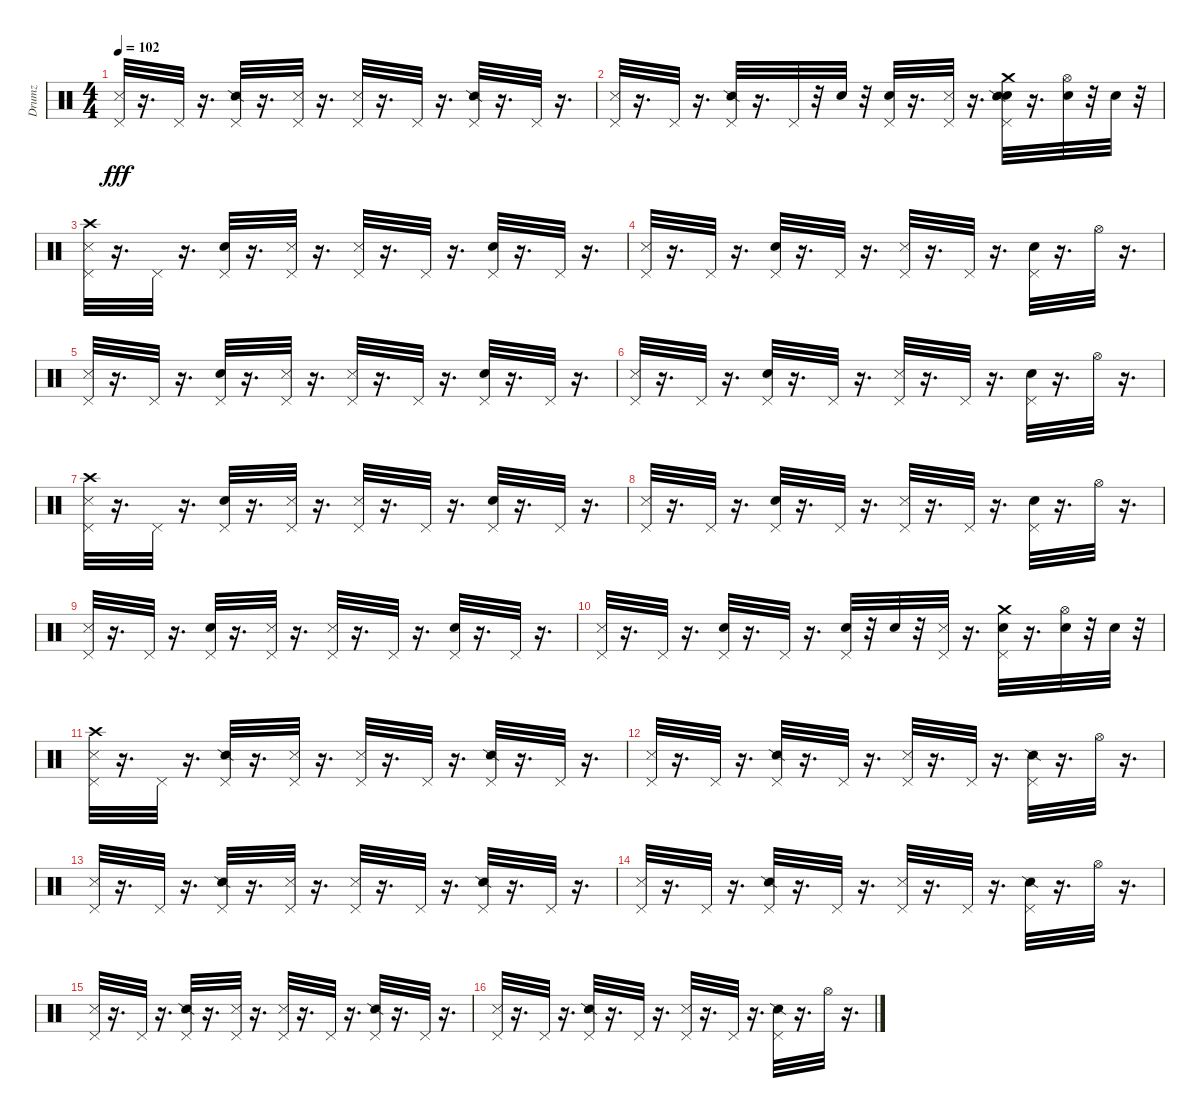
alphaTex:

\track ("Drumz" "Drumz") {instrument percussion}
\staff {score}
\articulation defaults
\ts (4 4)
\tempo 102
\clef neutral
\ks c
("Metronome (hit)" "Pedal Hi-Hat (hit)").32{dy fff} r.16{d} "Pedal Hi-Hat (hit)".32 r.16{d} ("Snare (side stick) 2" "Pedal Hi-Hat (hit)").32 r.16{d} ("Metronome (hit)" "Pedal Hi-Hat (hit)").32 r.16{d} ("Metronome (hit)" "Pedal Hi-Hat (hit)").32 r.16{d} "Pedal Hi-Hat (hit)".32 r.16{d} ("Pedal Hi-Hat (hit)" "Snare (side stick) 2").32 r.16{d} "Pedal Hi-Hat (hit)".32 r.16{d} |
("Metronome (hit)" "Pedal Hi-Hat (hit)").32 r.16{d} "Pedal Hi-Hat (hit)".32 r.16{d} ("Pedal Hi-Hat (hit)" "Snare (side stick) 2").32 r.16{d} "Pedal Hi-Hat (hit)".32 r.32 "Snare (hit) 2".32 r.32 ("Pedal Hi-Hat (hit)" "Snare (hit) 2").32 r.16{d} ("Pedal Hi-Hat (hit)" "Metronome (hit)").32 r.16{d} ("Snare (hit) 2" "Snare (side stick) 2" "Pedal Hi-Hat (hit)" "Crash medium (hit)").32 r.16{d} ("Snare (hit) 2" "Hi-Hat (open)").32 r.32 "Snare (hit) 2".32 r.32 |
("Crash high (hit)" "Metronome (hit)" "Pedal Hi-Hat (hit)").32 r.16{d} "Pedal Hi-Hat (hit)".32 r.16{d} ("Snare (hit) 2" "Pedal Hi-Hat (hit)").32 r.16{d} ("Pedal Hi-Hat (hit)" "Metronome (hit)").32 r.16{d} ("Pedal Hi-Hat (hit)" "Metronome (hit)").32 r.16{d} "Pedal Hi-Hat (hit)".32 r.16{d} ("Snare (hit) 2" "Pedal Hi-Hat (hit)").32 r.16{d} "Pedal Hi-Hat (hit)".32 r.16{d} |
("Metronome (hit)" "Pedal Hi-Hat (hit)").32 r.16{d} "Pedal Hi-Hat (hit)".32 r.16{d} ("Snare (hit) 2" "Pedal Hi-Hat (hit)").32 r.16{d} "Pedal Hi-Hat (hit)".32 r.16{d} ("Metronome (hit)" "Pedal Hi-Hat (hit)").32 r.16{d} "Pedal Hi-Hat (hit)".32 r.16{d} ("Pedal Hi-Hat (hit)" "Snare (hit) 2").32 r.16{d} "Hi-Hat (open)".32 r.16{d} |
("Metronome (hit)" "Pedal Hi-Hat (hit)").32 r.16{d} "Pedal Hi-Hat (hit)".32 r.16{d} ("Pedal Hi-Hat (hit)" "Snare (hit) 2").32 r.16{d} ("Metronome (hit)" "Pedal Hi-Hat (hit)").32 r.16{d} ("Metronome (hit)" "Pedal Hi-Hat (hit)").32 r.16{d} "Pedal Hi-Hat (hit)".32 r.16{d} ("Snare (hit) 2" "Pedal Hi-Hat (hit)").32 r.16{d} "Pedal Hi-Hat (hit)".32 r.16{d} |
("Pedal Hi-Hat (hit)" "Metronome (hit)").32 r.16{d} "Pedal Hi-Hat (hit)".32 r.16{d} ("Pedal Hi-Hat (hit)" "Snare (hit) 2").32 r.16{d} "Pedal Hi-Hat (hit)".32 r.16{d} ("Metronome (hit)" "Pedal Hi-Hat (hit)").32 r.16{d} "Pedal Hi-Hat (hit)".32 r.16{d} ("Pedal Hi-Hat (hit)" "Snare (hit) 2").32 r.16{d} "Hi-Hat (open)".32 r.16{d} |
("Crash high (hit)" "Pedal Hi-Hat (hit)" "Metronome (hit)").32 r.16{d} "Pedal Hi-Hat (hit)".32 r.16{d} ("Snare (hit) 2" "Pedal Hi-Hat (hit)").32 r.16{d} ("Metronome (hit)" "Pedal Hi-Hat (hit)").32 r.16{d} ("Pedal Hi-Hat (hit)" "Metronome (hit)").32 r.16{d} "Pedal Hi-Hat (hit)".32 r.16{d} ("Snare (hit) 2" "Pedal Hi-Hat (hit)").32 r.16{d} "Pedal Hi-Hat (hit)".32 r.16{d} |
("Metronome (hit)" "Pedal Hi-Hat (hit)").32 r.16{d} "Pedal Hi-Hat (hit)".32 r.16{d} ("Pedal Hi-Hat (hit)" "Snare (hit) 2").32 r.16{d} "Pedal Hi-Hat (hit)".32 r.16{d} ("Pedal Hi-Hat (hit)" "Metronome (hit)").32 r.16{d} "Pedal Hi-Hat (hit)".32 r.16{d} ("Snare (hit) 2" "Pedal Hi-Hat (hit)").32 r.16{d} "Hi-Hat (open)".32 r.16{d} |
("Pedal Hi-Hat (hit)" "Metronome (hit)").32 r.16{d} "Pedal Hi-Hat (hit)".32 r.16{d} ("Pedal Hi-Hat (hit)" "Snare (hit) 2").32 r.16{d} ("Metronome (hit)" "Pedal Hi-Hat (hit)").32 r.16{d} ("Metronome (hit)" "Pedal Hi-Hat (hit)").32 r.16{d} "Pedal Hi-Hat (hit)".32 r.16{d} ("Snare (hit) 2" "Pedal Hi-Hat (hit)").32 r.16{d} "Pedal Hi-Hat (hit)".32 r.16{d} |
("Pedal Hi-Hat (hit)" "Metronome (hit)").32 r.16{d} "Pedal Hi-Hat (hit)".32 r.16{d} ("Snare (hit) 2" "Pedal Hi-Hat (hit)").32 r.16{d} "Pedal Hi-Hat (hit)".32 r.16{d} ("Snare (hit) 2" "Pedal Hi-Hat (hit)").32 r.32 "Snare (hit) 2".32 r.32 ("Pedal Hi-Hat (hit)" "Metronome (hit)").32 r.16{d} ("Crash medium (hit)" "Pedal Hi-Hat (hit)" "Snare (hit) 2").32 r.16{d} ("Snare (hit) 2" "Hi-Hat (open)").32 r.32 "Snare (hit) 2".32 r.32 |
("Metronome (hit)" "Pedal Hi-Hat (hit)" "Crash high (hit)").32 r.16{d} "Pedal Hi-Hat (hit)".32 r.16{d} ("Pedal Hi-Hat (hit)" "Snare (side stick) 2").32 r.16{d} ("Metronome (hit)" "Pedal Hi-Hat (hit)").32 r.16{d} ("Pedal Hi-Hat (hit)" "Metronome (hit)").32 r.16{d} "Pedal Hi-Hat (hit)".32 r.16{d} ("Snare (side stick) 2" "Pedal Hi-Hat (hit)").32 r.16{d} "Pedal Hi-Hat (hit)".32 r.16{d} |
("Pedal Hi-Hat (hit)" "Metronome (hit)").32 r.16{d} "Pedal Hi-Hat (hit)".32 r.16{d} ("Snare (side stick) 2" "Pedal Hi-Hat (hit)").32 r.16{d} "Pedal Hi-Hat (hit)".32 r.16{d} ("Pedal Hi-Hat (hit)" "Metronome (hit)").32 r.16{d} "Pedal Hi-Hat (hit)".32 r.16{d} ("Snare (side stick) 2" "Pedal Hi-Hat (hit)").32 r.16{d} "Hi-Hat (open)".32 r.16{d} |
("Metronome (hit)" "Pedal Hi-Hat (hit)").32 r.16{d} "Pedal Hi-Hat (hit)".32 r.16{d} ("Pedal Hi-Hat (hit)" "Snare (side stick) 2").32 r.16{d} ("Pedal Hi-Hat (hit)" "Metronome (hit)").32 r.16{d} ("Pedal Hi-Hat (hit)" "Metronome (hit)").32 r.16{d} "Pedal Hi-Hat (hit)".32 r.16{d} ("Snare (side stick) 2" "Pedal Hi-Hat (hit)").32 r.16{d} "Pedal Hi-Hat (hit)".32 r.16{d} |
("Metronome (hit)" "Pedal Hi-Hat (hit)").32 r.16{d} "Pedal Hi-Hat (hit)".32 r.16{d} ("Pedal Hi-Hat (hit)" "Snare (side stick) 2").32 r.16{d} "Pedal Hi-Hat (hit)".32 r.16{d} ("Pedal Hi-Hat (hit)" "Metronome (hit)").32 r.16{d} "Pedal Hi-Hat (hit)".32 r.16{d} ("Pedal Hi-Hat (hit)" "Snare (side stick) 2").32 r.16{d} "Hi-Hat (open)".32 r.16{d} |
("Pedal Hi-Hat (hit)" "Metronome (hit)").32 r.16{d} "Pedal Hi-Hat (hit)".32 r.16{d} ("Snare (side stick) 2" "Pedal Hi-Hat (hit)").32 r.16{d} ("Metronome (hit)" "Pedal Hi-Hat (hit)").32 r.16{d} ("Pedal Hi-Hat (hit)" "Metronome (hit)").32 r.16{d} "Pedal Hi-Hat (hit)".32 r.16{d} ("Snare (side stick) 2" "Pedal Hi-Hat (hit)").32 r.16{d} "Pedal Hi-Hat (hit)".32 r.16{d} |
("Metronome (hit)" "Pedal Hi-Hat (hit)").32 r.16{d} "Pedal Hi-Hat (hit)".32 r.16{d} ("Pedal Hi-Hat (hit)" "Snare (side stick) 2").32 r.16{d} "Pedal Hi-Hat (hit)".32 r.16{d} ("Metronome (hit)" "Pedal Hi-Hat (hit)").32 r.16{d} "Pedal Hi-Hat (hit)".32 r.16{d} ("Pedal Hi-Hat (hit)" "Snare (side stick) 2").32 r.16{d} "Hi-Hat (open)".32 r.16{d}
